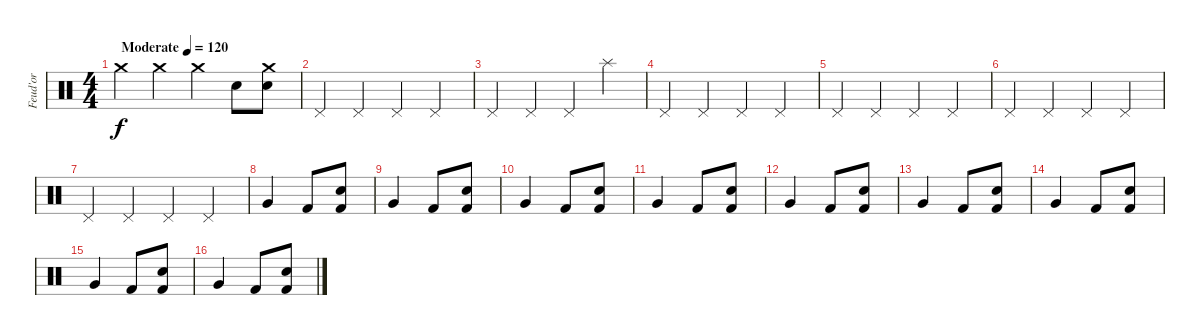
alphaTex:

\track ("Feud'or" "Feud'or") {instrument percussion}
\staff {score}
\articulation defaults
\ts (4 4)
\tempo (120 "Moderate")
\tempo 110
\tempo (120 "Moderate")
\clef neutral
\ks c "Crash medium (hit)".4{dy f} "Crash medium (hit)".4 "Crash medium (hit)".4 "Electric Snare (hit)".8
("Crash medium (hit)" "Electric Snare (hit)").8 |
"Pedal Hi-Hat (hit)".4 "Pedal Hi-Hat (hit)".4 "Pedal Hi-Hat (hit)".4 "Pedal Hi-Hat (hit)".4 |
"Pedal Hi-Hat (hit)".4 "Pedal Hi-Hat (hit)".4 "Pedal Hi-Hat (hit)".4 "Splash (hit)".4 |
"Pedal Hi-Hat (hit)".4 "Pedal Hi-Hat (hit)".4 "Pedal Hi-Hat (hit)".4 "Pedal Hi-Hat (hit)".4 |
"Pedal Hi-Hat (hit)".4 "Pedal Hi-Hat (hit)".4 "Pedal Hi-Hat (hit)".4 "Pedal Hi-Hat (hit)".4 |
"Pedal Hi-Hat (hit)".4 "Pedal Hi-Hat (hit)".4 "Pedal Hi-Hat (hit)".4 "Pedal Hi-Hat (hit)".4 |
"Pedal Hi-Hat (hit)".4 "Pedal Hi-Hat (hit)".4 "Pedal Hi-Hat (hit)".4 "Pedal Hi-Hat (hit)".4 |
"Very Low Tom (hit)".4 "Kick (hit) 2".8 ("Kick (hit) 2" "Snare (hit) 2").8 |
"Very Low Tom (hit)".4 "Kick (hit) 2".8 ("Kick (hit) 2" "Snare (hit) 2").8 |
"Very Low Tom (hit)".4 "Kick (hit) 2".8 ("Kick (hit) 2" "Snare (hit) 2").8 |
"Very Low Tom (hit)".4 "Kick (hit) 2".8 ("Kick (hit) 2" "Snare (hit) 2").8 |
"Very Low Tom (hit)".4 "Kick (hit) 2".8 ("Kick (hit) 2" "Snare (hit) 2").8 |
"Very Low Tom (hit)".4 "Kick (hit) 2".8 ("Kick (hit) 2" "Snare (hit) 2").8 |
"Very Low Tom (hit)".4 "Kick (hit) 2".8 ("Kick (hit) 2" "Snare (hit) 2").8 |
"Very Low Tom (hit)".4 "Kick (hit) 2".8 ("Kick (hit) 2" "Snare (hit) 2").8 |
"Very Low Tom (hit)".4 "Kick (hit) 2".8 ("Kick (hit) 2" "Snare (hit) 2").8
